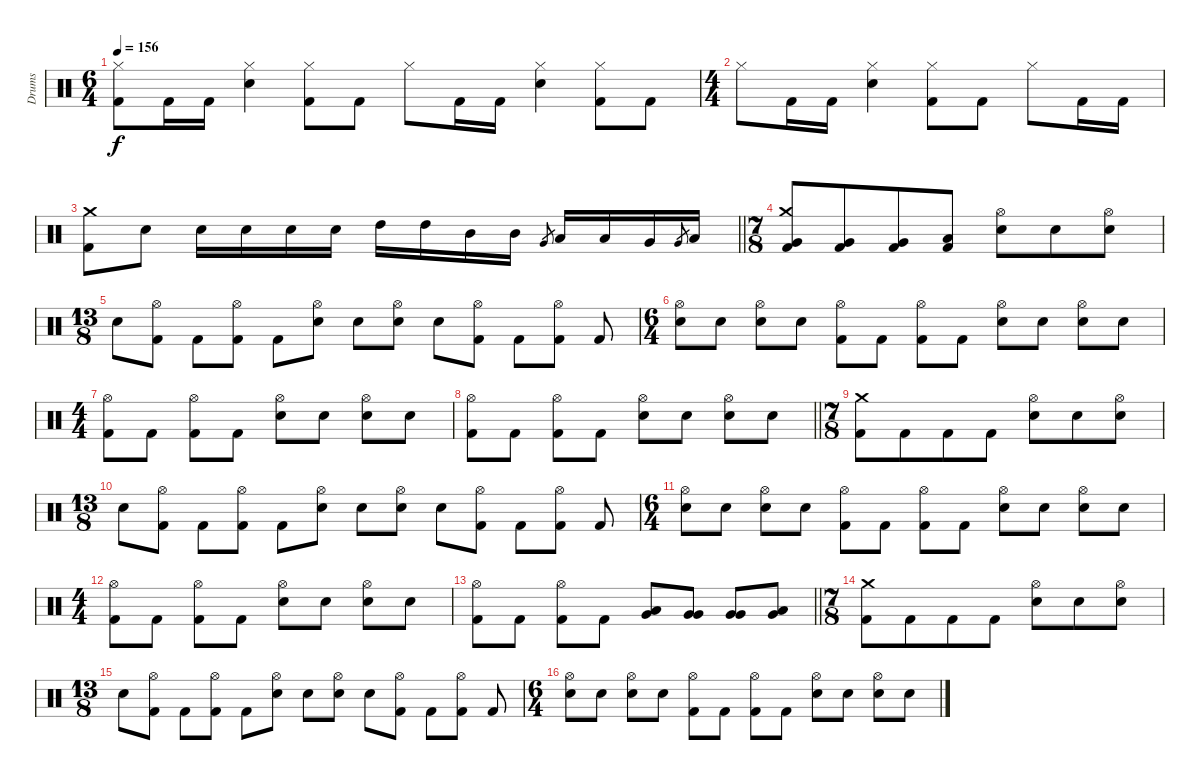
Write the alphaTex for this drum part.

\track ("Drums" "Drums") {instrument percussion}
\staff {score}
\articulation defaults
\ts (6 4)
\tempo 156
\clef neutral
\ks c
("Hi-Hat (closed)" "Kick (hit) 2").8{dy f} "Kick (hit) 2".16 "Kick (hit) 2".16 ("Hi-Hat (closed)" "Electric Snare (hit)").4 ("Hi-Hat (closed)" "Kick (hit) 2").8 "Kick (hit) 2".8 "Hi-Hat (closed)".8 "Kick (hit) 2".16 "Kick (hit) 2".16 ("Hi-Hat (closed)" "Electric Snare (hit)").4 ("Hi-Hat (closed)" "Kick (hit) 2").8 "Kick (hit) 2".8 |
\ts (4 4)
"Hi-Hat (closed)".8 "Kick (hit) 2".16 "Kick (hit) 2".16 ("Hi-Hat (closed)" "Electric Snare (hit)").4 ("Hi-Hat (closed)" "Kick (hit) 2").8 "Kick (hit) 2".8 "Hi-Hat (closed)".8 "Kick (hit) 2".16 "Kick (hit) 2".16 |
\barLineRight lightlight
("Crash medium (hit)" "Kick (hit) 2").8 "Electric Snare (hit)".8 "Electric Snare (hit)".16 "Electric Snare (hit)".16 "Electric Snare (hit)".16 "Electric Snare (hit)".16 "High Tom (hit)".16 "High Tom (hit)".16 "Mid Tom (hit)".16 "Mid Tom (hit)".16 "Very Low Tom (hit)".8{gr} "Low Tom (hit)".16 "Low Tom (hit)".16 "Very Low Tom (hit)".16 "Very Low Tom (hit)".8{gr} "Low Floor Tom (hit)".16 |
\ts (7 8)
\section ("" "")
("Crash medium (hit)" "Very Low Tom (hit)" "Kick (hit) 2").8 ("Very Low Tom (hit)" "Kick (hit) 2").8 ("Very Low Tom (hit)" "Kick (hit) 2").8 ("Low Floor Tom (hit)" "Kick (hit) 2").8 ("Hi-Hat (open)" "Electric Snare (hit)").8 "Electric Snare (hit)".8 ("Hi-Hat (open)" "Electric Snare (hit)").8 |
\ts (13 8)
"Electric Snare (hit)".8 ("Hi-Hat (open)" "Kick (hit) 2").8 "Kick (hit) 2".8 ("Hi-Hat (open)" "Kick (hit) 2").8 "Kick (hit) 2".8 ("Hi-Hat (open)" "Electric Snare (hit)").8 "Electric Snare (hit)".8 ("Hi-Hat (open)" "Electric Snare (hit)").8 "Electric Snare (hit)".8 ("Hi-Hat (open)" "Kick (hit) 2").8 "Kick (hit) 2".8 ("Hi-Hat (open)" "Kick (hit) 2").8 "Kick (hit) 2".8 |
\ts (6 4)
("Hi-Hat (open)" "Electric Snare (hit)").8 "Electric Snare (hit)".8 ("Hi-Hat (open)" "Electric Snare (hit)").8 "Electric Snare (hit)".8 ("Hi-Hat (open)" "Kick (hit) 2").8 "Kick (hit) 2".8 ("Hi-Hat (open)" "Kick (hit) 2").8 "Kick (hit) 2".8 ("Hi-Hat (open)" "Electric Snare (hit)").8 "Electric Snare (hit)".8 ("Hi-Hat (open)" "Electric Snare (hit)").8 "Electric Snare (hit)".8 |
\ts (4 4)
("Hi-Hat (open)" "Kick (hit) 2").8 "Kick (hit) 2".8 ("Hi-Hat (open)" "Kick (hit) 2").8 "Kick (hit) 2".8 ("Hi-Hat (open)" "Electric Snare (hit)").8 "Electric Snare (hit)".8 ("Hi-Hat (open)" "Electric Snare (hit)").8 "Electric Snare (hit)".8 |
\barLineRight lightlight
("Hi-Hat (open)" "Kick (hit) 2").8 "Kick (hit) 2".8 ("Hi-Hat (open)" "Kick (hit) 2").8 "Kick (hit) 2".8 ("Hi-Hat (open)" "Electric Snare (hit)").8 "Electric Snare (hit)".8 ("Hi-Hat (open)" "Electric Snare (hit)").8 "Electric Snare (hit)".8 |
\ts (7 8)
\section ("" "")
("Crash medium (hit)" "Kick (hit) 2").8 "Kick (hit) 2".8 "Kick (hit) 2".8 "Kick (hit) 2".8 ("Hi-Hat (open)" "Electric Snare (hit)").8 "Electric Snare (hit)".8 ("Hi-Hat (open)" "Electric Snare (hit)").8 |
\ts (13 8)
"Electric Snare (hit)".8 ("Hi-Hat (open)" "Kick (hit) 2").8 "Kick (hit) 2".8 ("Hi-Hat (open)" "Kick (hit) 2").8 "Kick (hit) 2".8 ("Hi-Hat (open)" "Electric Snare (hit)").8 "Electric Snare (hit)".8 ("Hi-Hat (open)" "Electric Snare (hit)").8 "Electric Snare (hit)".8 ("Hi-Hat (open)" "Kick (hit) 2").8 "Kick (hit) 2".8 ("Hi-Hat (open)" "Kick (hit) 2").8 "Kick (hit) 2".8 |
\ts (6 4)
("Hi-Hat (open)" "Electric Snare (hit)").8 "Electric Snare (hit)".8 ("Hi-Hat (open)" "Electric Snare (hit)").8 "Electric Snare (hit)".8 ("Hi-Hat (open)" "Kick (hit) 2").8 "Kick (hit) 2".8 ("Hi-Hat (open)" "Kick (hit) 2").8 "Kick (hit) 2".8 ("Hi-Hat (open)" "Electric Snare (hit)").8 "Electric Snare (hit)".8 ("Hi-Hat (open)" "Electric Snare (hit)").8 "Electric Snare (hit)".8 |
\ts (4 4)
("Hi-Hat (open)" "Kick (hit) 2").8 "Kick (hit) 2".8 ("Hi-Hat (open)" "Kick (hit) 2").8 "Kick (hit) 2".8 ("Hi-Hat (open)" "Electric Snare (hit)").8 "Electric Snare (hit)".8 ("Hi-Hat (open)" "Electric Snare (hit)").8 "Electric Snare (hit)".8 |
\barLineRight lightlight
("Hi-Hat (open)" "Kick (hit) 2").8 "Kick (hit) 2".8 ("Hi-Hat (open)" "Kick (hit) 2").8 "Kick (hit) 2".8 ("Low Tom (hit)" "Very Low Tom (hit)").8 ("Very Low Tom (hit)" "Very Low Tom (hit)").8 ("Very Low Tom (hit)" "Very Low Tom (hit)").8 ("Low Floor Tom (hit)" "Very Low Tom (hit)").8 |
\ts (7 8)
\section ("" "")
("Crash medium (hit)" "Kick (hit) 2").8 "Kick (hit) 2".8 "Kick (hit) 2".8 "Kick (hit) 2".8 ("Hi-Hat (open)" "Electric Snare (hit)").8 "Electric Snare (hit)".8 ("Hi-Hat (open)" "Electric Snare (hit)").8 |
\ts (13 8)
"Electric Snare (hit)".8 ("Hi-Hat (open)" "Kick (hit) 2").8 "Kick (hit) 2".8 ("Hi-Hat (open)" "Kick (hit) 2").8 "Kick (hit) 2".8 ("Hi-Hat (open)" "Electric Snare (hit)").8 "Electric Snare (hit)".8 ("Hi-Hat (open)" "Electric Snare (hit)").8 "Electric Snare (hit)".8 ("Hi-Hat (open)" "Kick (hit) 2").8 "Kick (hit) 2".8 ("Hi-Hat (open)" "Kick (hit) 2").8 "Kick (hit) 2".8 |
\ts (6 4)
("Hi-Hat (open)" "Electric Snare (hit)").8 "Electric Snare (hit)".8 ("Hi-Hat (open)" "Electric Snare (hit)").8 "Electric Snare (hit)".8 ("Hi-Hat (open)" "Kick (hit) 2").8 "Kick (hit) 2".8 ("Hi-Hat (open)" "Kick (hit) 2").8 "Kick (hit) 2".8 ("Hi-Hat (open)" "Electric Snare (hit)").8 "Electric Snare (hit)".8 ("Hi-Hat (open)" "Electric Snare (hit)").8 "Electric Snare (hit)".8
